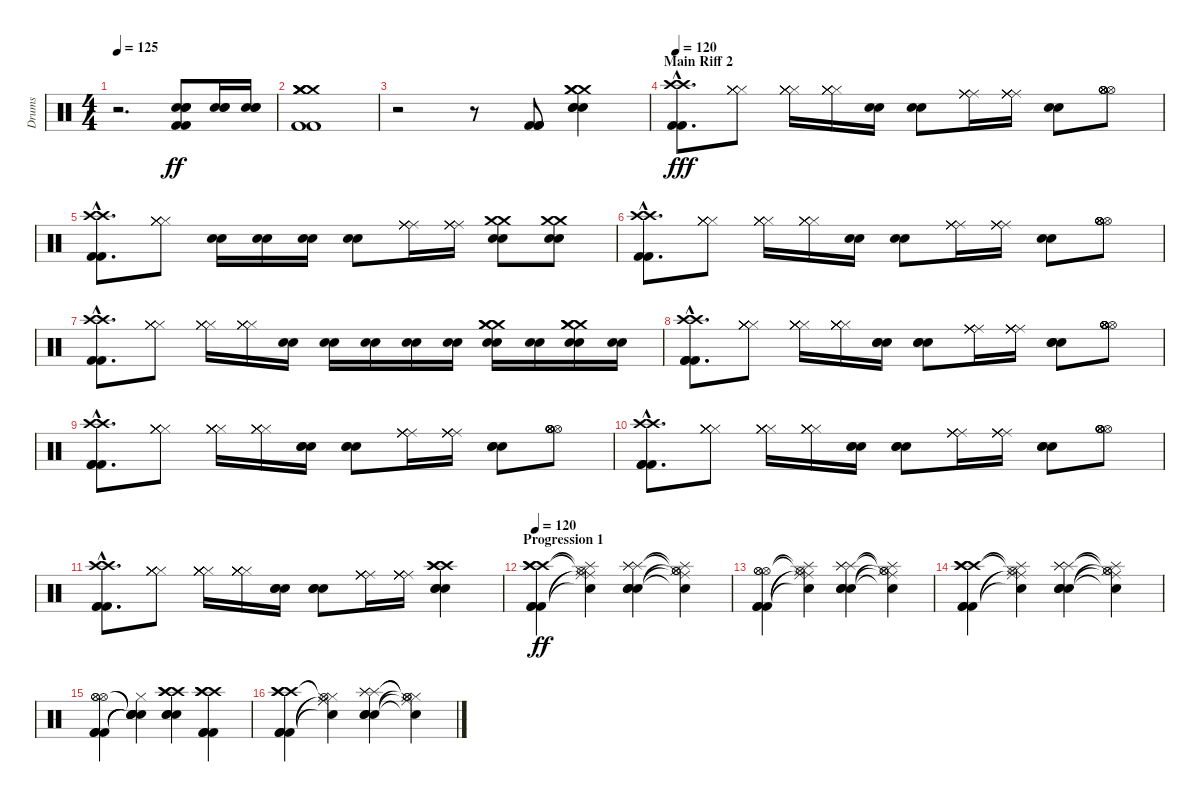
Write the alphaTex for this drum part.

\track ("Drums" "Drums") {instrument percussion}
\staff {score}
\articulation defaults
\ts (4 4)
\tempo 125
\clef neutral
\ks c
r.2{d dy f} ("Snare (hit) 2" "Snare (hit) 2" "Snare (hit) 2" "Kick (hit) 2" "Kick (hit) 2").8{dy ff} ("Snare (hit) 2" "Snare (hit) 2" "Snare (hit) 2").16 ("Snare (hit) 2" "Snare (hit) 2" "Snare (hit) 2").16 |
("Crash medium (hit)" "Crash medium (hit)" "Crash medium (hit)" "Crash medium (hit)" "Kick (hit) 2" "Kick (hit) 2").1 |
r.2 r.8 ("Kick (hit) 2" "Kick (hit) 2" "Kick (hit) 2").8 ("Crash medium (hit)" "Crash medium (hit)" "Crash medium (hit)" "Snare (hit) 2" "Snare (hit) 2" "Snare (hit) 2").4 |
\section ("" "Main Riff 2")
\tempo 120
("Crash high (hit)"{hac} "Crash high (hit)"{hac} "Kick (hit) 2"{hac} "Kick (hit) 2"{hac}).8{d dy fff} ("Hi-Hat (closed)" "Hi-Hat (closed)" "Hi-Hat (closed)" "Hi-Hat (closed)" "Hi-Hat (closed)").8 ("Hi-Hat (closed)" "Hi-Hat (closed)" "Hi-Hat (closed)" "Hi-Hat (closed)" "Hi-Hat (closed)").16 ("Hi-Hat (closed)" "Hi-Hat (closed)" "Hi-Hat (closed)" "Hi-Hat (closed)" "Hi-Hat (closed)").16 ("Snare (hit) 2" "Snare (hit) 2").16 ("Snare (hit) 2" "Snare (hit) 2").8 ("Ride (middle)" "Ride (middle)" "Ride (middle)" "Ride (middle)" "Ride (middle)").16 ("Ride (middle)" "Ride (middle)" "Ride (middle)" "Ride (middle)" "Ride (middle)").16 ("Snare (hit) 2" "Snare (hit) 2").8 ("Hi-Hat (open)" "Hi-Hat (open)" "Hi-Hat (open)" "Hi-Hat (open)" "Hi-Hat (open)").8 |
("Crash high (hit)"{hac} "Crash high (hit)"{hac} "Kick (hit) 2"{hac} "Kick (hit) 2"{hac}).8{d} ("Hi-Hat (closed)" "Hi-Hat (closed)" "Hi-Hat (closed)" "Hi-Hat (closed)" "Hi-Hat (closed)").8 ("Snare (hit) 2" "Snare (hit) 2").16 ("Snare (hit) 2" "Snare (hit) 2").16 ("Snare (hit) 2" "Snare (hit) 2").16 ("Snare (hit) 2" "Snare (hit) 2").8 ("Ride (middle)" "Ride (middle)" "Ride (middle)" "Ride (middle)" "Ride (middle)").16 ("Ride (middle)" "Ride (middle)" "Ride (middle)" "Ride (middle)" "Ride (middle)").16 ("Crash medium (hit)" "Crash medium (hit)" "Snare (hit) 2" "Snare (hit) 2").8 ("Crash medium (hit)" "Crash medium (hit)" "Snare (hit) 2" "Snare (hit) 2").8 |
("Crash high (hit)"{hac} "Crash high (hit)"{hac} "Kick (hit) 2"{hac} "Kick (hit) 2"{hac}).8{d} ("Hi-Hat (closed)" "Hi-Hat (closed)" "Hi-Hat (closed)" "Hi-Hat (closed)" "Hi-Hat (closed)").8 ("Hi-Hat (closed)" "Hi-Hat (closed)" "Hi-Hat (closed)" "Hi-Hat (closed)" "Hi-Hat (closed)").16 ("Hi-Hat (closed)" "Hi-Hat (closed)" "Hi-Hat (closed)" "Hi-Hat (closed)" "Hi-Hat (closed)").16 ("Snare (hit) 2" "Snare (hit) 2").16 ("Snare (hit) 2" "Snare (hit) 2").8 ("Ride (middle)" "Ride (middle)" "Ride (middle)" "Ride (middle)" "Ride (middle)").16 ("Ride (middle)" "Ride (middle)" "Ride (middle)" "Ride (middle)" "Ride (middle)").16 ("Snare (hit) 2" "Snare (hit) 2").8 ("Hi-Hat (open)" "Hi-Hat (open)" "Hi-Hat (open)" "Hi-Hat (open)" "Hi-Hat (open)").8 |
("Crash high (hit)"{hac} "Crash high (hit)"{hac} "Kick (hit) 2"{hac} "Kick (hit) 2"{hac}).8{d} ("Hi-Hat (closed)" "Hi-Hat (closed)" "Hi-Hat (closed)" "Hi-Hat (closed)" "Hi-Hat (closed)").8 ("Hi-Hat (closed)" "Hi-Hat (closed)" "Hi-Hat (closed)" "Hi-Hat (closed)" "Hi-Hat (closed)").16 ("Hi-Hat (closed)" "Hi-Hat (closed)" "Hi-Hat (closed)" "Hi-Hat (closed)" "Hi-Hat (closed)").16 ("Snare (hit) 2" "Snare (hit) 2").16 ("Snare (hit) 2" "Snare (hit) 2").16 ("Snare (hit) 2" "Snare (hit) 2").16 ("Snare (hit) 2" "Snare (hit) 2").16 ("Snare (hit) 2" "Snare (hit) 2").16 ("Crash medium (hit)" "Crash medium (hit)" "Crash medium (hit)" "Snare (hit) 2" "Snare (hit) 2").16 ("Snare (hit) 2" "Snare (hit) 2").16 ("Crash medium (hit)" "Crash medium (hit)" "Crash medium (hit)" "Snare (hit) 2" "Snare (hit) 2").16 ("Snare (hit) 2" "Snare (hit) 2").16 |
("Crash high (hit)"{hac} "Crash high (hit)"{hac} "Kick (hit) 2"{hac} "Kick (hit) 2"{hac} "Kick (hit) 2"{hac}).8{d} ("Hi-Hat (closed)" "Hi-Hat (closed)" "Hi-Hat (closed)" "Hi-Hat (closed)" "Hi-Hat (closed)" "Hi-Hat (closed)").8 ("Hi-Hat (closed)" "Hi-Hat (closed)" "Hi-Hat (closed)" "Hi-Hat (closed)" "Hi-Hat (closed)" "Hi-Hat (closed)").16 ("Hi-Hat (closed)" "Hi-Hat (closed)" "Hi-Hat (closed)" "Hi-Hat (closed)" "Hi-Hat (closed)" "Hi-Hat (closed)").16 ("Snare (hit) 2" "Snare (hit) 2" "Snare (hit) 2").16 ("Snare (hit) 2" "Snare (hit) 2" "Snare (hit) 2").8 ("Ride (middle)" "Ride (middle)" "Ride (middle)" "Ride (middle)" "Ride (middle)" "Ride (middle)").16 ("Ride (middle)" "Ride (middle)" "Ride (middle)" "Ride (middle)" "Ride (middle)" "Ride (middle)").16 ("Snare (hit) 2" "Snare (hit) 2" "Snare (hit) 2").8 ("Hi-Hat (open)" "Hi-Hat (open)" "Hi-Hat (open)" "Hi-Hat (open)" "Hi-Hat (open)" "Hi-Hat (open)").8 |
("Crash high (hit)"{hac} "Crash high (hit)"{hac} "Kick (hit) 2"{hac} "Kick (hit) 2"{hac} "Kick (hit) 2"{hac}).8{d} ("Hi-Hat (closed)" "Hi-Hat (closed)" "Hi-Hat (closed)" "Hi-Hat (closed)" "Hi-Hat (closed)" "Hi-Hat (closed)").8 ("Hi-Hat (closed)" "Hi-Hat (closed)" "Hi-Hat (closed)" "Hi-Hat (closed)" "Hi-Hat (closed)" "Hi-Hat (closed)").16 ("Hi-Hat (closed)" "Hi-Hat (closed)" "Hi-Hat (closed)" "Hi-Hat (closed)" "Hi-Hat (closed)" "Hi-Hat (closed)").16 ("Snare (hit) 2" "Snare (hit) 2" "Snare (hit) 2").16 ("Snare (hit) 2" "Snare (hit) 2" "Snare (hit) 2").8 ("Ride (middle)" "Ride (middle)" "Ride (middle)" "Ride (middle)" "Ride (middle)" "Ride (middle)").16 ("Ride (middle)" "Ride (middle)" "Ride (middle)" "Ride (middle)" "Ride (middle)" "Ride (middle)").16 ("Snare (hit) 2" "Snare (hit) 2" "Snare (hit) 2").8 ("Hi-Hat (open)" "Hi-Hat (open)" "Hi-Hat (open)" "Hi-Hat (open)" "Hi-Hat (open)" "Hi-Hat (open)").8 |
("Crash high (hit)"{hac} "Crash high (hit)"{hac} "Kick (hit) 2"{hac} "Kick (hit) 2"{hac} "Kick (hit) 2"{hac}).8{d} ("Hi-Hat (closed)" "Hi-Hat (closed)" "Hi-Hat (closed)" "Hi-Hat (closed)" "Hi-Hat (closed)" "Hi-Hat (closed)").8 ("Hi-Hat (closed)" "Hi-Hat (closed)" "Hi-Hat (closed)" "Hi-Hat (closed)" "Hi-Hat (closed)" "Hi-Hat (closed)").16 ("Hi-Hat (closed)" "Hi-Hat (closed)" "Hi-Hat (closed)" "Hi-Hat (closed)" "Hi-Hat (closed)" "Hi-Hat (closed)").16 ("Snare (hit) 2" "Snare (hit) 2" "Snare (hit) 2").16 ("Snare (hit) 2" "Snare (hit) 2" "Snare (hit) 2").8 ("Ride (middle)" "Ride (middle)" "Ride (middle)" "Ride (middle)" "Ride (middle)" "Ride (middle)").16 ("Ride (middle)" "Ride (middle)" "Ride (middle)" "Ride (middle)" "Ride (middle)" "Ride (middle)").16 ("Snare (hit) 2" "Snare (hit) 2" "Snare (hit) 2").8 ("Hi-Hat (open)" "Hi-Hat (open)" "Hi-Hat (open)" "Hi-Hat (open)" "Hi-Hat (open)" "Hi-Hat (open)").8 |
("Crash high (hit)"{hac} "Crash high (hit)"{hac} "Kick (hit) 2"{hac} "Kick (hit) 2"{hac} "Kick (hit) 2"{hac}).8{d} ("Hi-Hat (closed)" "Hi-Hat (closed)" "Hi-Hat (closed)" "Hi-Hat (closed)" "Hi-Hat (closed)" "Hi-Hat (closed)").8 ("Hi-Hat (closed)" "Hi-Hat (closed)" "Hi-Hat (closed)" "Hi-Hat (closed)" "Hi-Hat (closed)" "Hi-Hat (closed)").16 ("Hi-Hat (closed)" "Hi-Hat (closed)" "Hi-Hat (closed)" "Hi-Hat (closed)" "Hi-Hat (closed)" "Hi-Hat (closed)").16 ("Snare (hit) 2" "Snare (hit) 2" "Snare (hit) 2").16 ("Snare (hit) 2" "Snare (hit) 2" "Snare (hit) 2").8 ("Ride (middle)" "Ride (middle)" "Ride (middle)" "Ride (middle)" "Ride (middle)" "Ride (middle)").16 ("Ride (middle)" "Ride (middle)" "Ride (middle)" "Ride (middle)" "Ride (middle)" "Ride (middle)").16 ("Crash high (hit)" "Crash high (hit)" "Crash high (hit)" "Snare (hit) 2" "Snare (hit) 2" "Snare (hit) 2").4 |
\section ("" "Progression 1")
\tempo 120
("Crash high (hit)" "Crash high (hit)" "Crash high (hit)" "Kick (hit) 2" "Kick (hit) 2" "Kick (hit) 2").4{dy ff} ("Hi-Hat (closed)" "Splash (hit)"{t} "Hi-Hat (open)"{t} "Ride (middle)"{t} "Ride (middle)"{t} "Snare (hit)"{t}).4 ("Splash (hit)" "Splash (hit)" "Splash (hit)" "Snare (hit) 2" "Snare (hit) 2" "Snare (hit) 2").4 ("Hi-Hat (closed)" "Splash (hit)"{t} "Hi-Hat (open)"{t} "Hi-Hat (open)"{t} "Ride (middle)"{t} "Snare (hit)"{t}).4 |
("Hi-Hat (open)" "Hi-Hat (open)" "Hi-Hat (open)" "Kick (hit) 2" "Kick (hit) 2" "Kick (hit) 2").4 ("Hi-Hat (closed)" "Splash (hit)"{t} "Hi-Hat (open)"{t} "Ride (middle)"{t} "Ride (middle)"{t} "Snare (hit)"{t}).4 ("Splash (hit)" "Splash (hit)" "Splash (hit)" "Snare (hit) 2" "Snare (hit) 2" "Snare (hit) 2").4 ("Hi-Hat (closed)" "Splash (hit)"{t} "Hi-Hat (open)"{t} "Hi-Hat (open)"{t} "Ride (middle)"{t} "Snare (hit)"{t}).4 |
("Crash high (hit)" "Crash high (hit)" "Crash high (hit)" "Kick (hit) 2" "Kick (hit) 2" "Kick (hit) 2").4 ("Hi-Hat (closed)" "Splash (hit)"{t} "Hi-Hat (open)"{t} "Ride (middle)"{t} "Ride (middle)"{t} "Snare (hit)"{t}).4 ("Splash (hit)" "Splash (hit)" "Splash (hit)" "Snare (hit) 2" "Snare (hit) 2" "Snare (hit) 2").4 ("Hi-Hat (closed)" "Splash (hit)"{t} "Hi-Hat (open)"{t} "Hi-Hat (open)"{t} "Ride (middle)"{t} "Snare (hit)"{t}).4 |
("Hi-Hat (open)" "Hi-Hat (open)" "Hi-Hat (open)" "Kick (hit) 2" "Kick (hit) 2" "Kick (hit) 2").4 ("Hi-Hat (closed)" "Snare (hit)"{t} "Snare (hit)"{t} "Snare (hit)"{t} "Snare (hit)"{t} "Snare (hit)"{t}).4 ("Crash high (hit)" "Crash high (hit)" "Crash high (hit)" "Snare (hit) 2" "Snare (hit) 2" "Snare (hit) 2").4 ("Crash high (hit)" "Crash high (hit)" "Crash high (hit)" "Kick (hit) 2" "Kick (hit) 2" "Kick (hit) 2").4 |
("Crash high (hit)" "Crash high (hit)" "Crash high (hit)" "Kick (hit) 2" "Kick (hit) 2" "Kick (hit) 2").4 ("Hi-Hat (closed)" "Hi-Hat (closed)"{t} "Hi-Hat (open)"{t} "Ride (middle)"{t} "Ride (middle)"{t} "Snare (hit)"{t}).4 ("Splash (hit)" "Splash (hit)" "Splash (hit)" "Snare (hit) 2" "Snare (hit) 2" "Snare (hit) 2").4 ("Hi-Hat (closed)" "Hi-Hat (closed)"{t} "Hi-Hat (open)"{t} "Hi-Hat (open)"{t} "Ride (middle)"{t} "Snare (hit)"{t}).4
